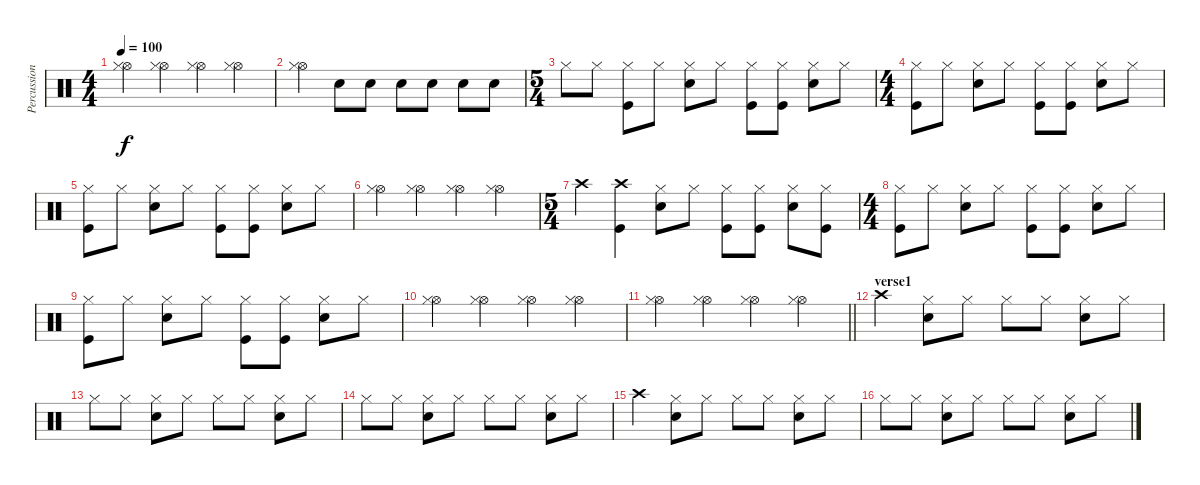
\track ("Percussioni" "Percussion") {instrument percussion}
\staff {score}
\articulation defaults
\ts (4 4)
\tempo 100
\clef neutral
\ks c
("Hi-Hat (open)" "Hi-Hat (closed)").4{dy f} ("Hi-Hat (open)" "Hi-Hat (closed)").4 ("Hi-Hat (open)" "Hi-Hat (closed)").4 ("Hi-Hat (open)" "Hi-Hat (closed)").4 |
("Hi-Hat (open)" "Hi-Hat (closed)").4 "Snare (hit) 2".8 "Snare (hit) 2".8 "Snare (hit) 2".8 "Snare (hit) 2".8 "Snare (hit) 2".8 "Snare (hit) 2".8 |
\ts (5 4)
"Hi-Hat (closed)".8 "Hi-Hat (closed)".8 ("Hi-Hat (closed)" "Kick (hit)").8 "Hi-Hat (closed)".8 ("Hi-Hat (closed)" "Snare (hit) 2").8 "Hi-Hat (closed)".8 ("Hi-Hat (closed)" "Kick (hit)").8 ("Hi-Hat (closed)" "Kick (hit)").8 ("Hi-Hat (closed)" "Snare (hit) 2").8 "Hi-Hat (closed)".8 |
\ts (4 4)
("Hi-Hat (closed)" "Kick (hit)").8 "Hi-Hat (closed)".8 ("Hi-Hat (closed)" "Snare (hit) 2").8 "Hi-Hat (closed)".8 ("Hi-Hat (closed)" "Kick (hit)").8 ("Hi-Hat (closed)" "Kick (hit)").8 ("Hi-Hat (closed)" "Snare (hit) 2").8 "Hi-Hat (closed)".8 |
("Hi-Hat (closed)" "Kick (hit)").8 "Hi-Hat (closed)".8 ("Hi-Hat (closed)" "Snare (hit) 2").8 "Hi-Hat (closed)".8 ("Hi-Hat (closed)" "Kick (hit)").8 ("Hi-Hat (closed)" "Kick (hit)").8 ("Hi-Hat (closed)" "Snare (hit) 2").8 "Hi-Hat (closed)".8 |
("Hi-Hat (open)" "Hi-Hat (closed)").4 ("Hi-Hat (open)" "Hi-Hat (closed)").4 ("Hi-Hat (open)" "Hi-Hat (closed)").4 ("Hi-Hat (open)" "Hi-Hat (closed)").4 |
\ts (5 4)
"Crash high (hit)".4 ("Crash high (hit)" "Kick (hit)").4 ("Hi-Hat (closed)" "Snare (hit) 2").8 "Hi-Hat (closed)".8 ("Hi-Hat (closed)" "Kick (hit)").8 ("Hi-Hat (closed)" "Kick (hit)").8 ("Hi-Hat (closed)" "Snare (hit) 2").8 ("Hi-Hat (closed)" "Kick (hit)").8 |
\ts (4 4)
("Hi-Hat (closed)" "Kick (hit)").8 "Hi-Hat (closed)".8 ("Hi-Hat (closed)" "Snare (hit) 2").8 "Hi-Hat (closed)".8 ("Hi-Hat (closed)" "Kick (hit)").8 ("Hi-Hat (closed)" "Kick (hit)").8 ("Hi-Hat (closed)" "Snare (hit) 2").8 "Hi-Hat (closed)".8 |
("Hi-Hat (closed)" "Kick (hit)").8 "Hi-Hat (closed)".8 ("Hi-Hat (closed)" "Snare (hit) 2").8 "Hi-Hat (closed)".8 ("Hi-Hat (closed)" "Kick (hit)").8 ("Hi-Hat (closed)" "Kick (hit)").8 ("Hi-Hat (closed)" "Snare (hit) 2").8 "Hi-Hat (closed)".8 |
("Hi-Hat (open)" "Hi-Hat (closed)").4 ("Hi-Hat (open)" "Hi-Hat (closed)").4 ("Hi-Hat (open)" "Hi-Hat (closed)").4 ("Hi-Hat (open)" "Hi-Hat (closed)").4 |
\barLineRight lightlight
("Hi-Hat (open)" "Hi-Hat (closed)").4 ("Hi-Hat (open)" "Hi-Hat (closed)").4 ("Hi-Hat (open)" "Hi-Hat (closed)").4 ("Hi-Hat (open)" "Hi-Hat (closed)").4 |
\section ("" "verse1")
"Crash high (hit)".4 ("Hi-Hat (closed)" "Snare (hit) 2").8 "Hi-Hat (closed)".8 "Hi-Hat (closed)".8 "Hi-Hat (closed)".8 ("Hi-Hat (closed)" "Snare (hit) 2").8 "Hi-Hat (closed)".8 |
"Hi-Hat (closed)".8 "Hi-Hat (closed)".8 ("Hi-Hat (closed)" "Snare (hit) 2").8 "Hi-Hat (closed)".8 "Hi-Hat (closed)".8 "Hi-Hat (closed)".8 ("Hi-Hat (closed)" "Snare (hit) 2").8 "Hi-Hat (closed)".8 |
"Hi-Hat (closed)".8 "Hi-Hat (closed)".8 ("Hi-Hat (closed)" "Snare (hit) 2").8 "Hi-Hat (closed)".8 "Hi-Hat (closed)".8 "Hi-Hat (closed)".8 ("Hi-Hat (closed)" "Snare (hit) 2").8 "Hi-Hat (closed)".8 |
"Crash high (hit)".4 ("Hi-Hat (closed)" "Snare (hit) 2").8 "Hi-Hat (closed)".8 "Hi-Hat (closed)".8 "Hi-Hat (closed)".8 ("Hi-Hat (closed)" "Snare (hit) 2").8 "Hi-Hat (closed)".8 |
"Hi-Hat (closed)".8 "Hi-Hat (closed)".8 ("Hi-Hat (closed)" "Snare (hit) 2").8 "Hi-Hat (closed)".8 "Hi-Hat (closed)".8 "Hi-Hat (closed)".8 ("Hi-Hat (closed)" "Snare (hit) 2").8 "Hi-Hat (closed)".8
